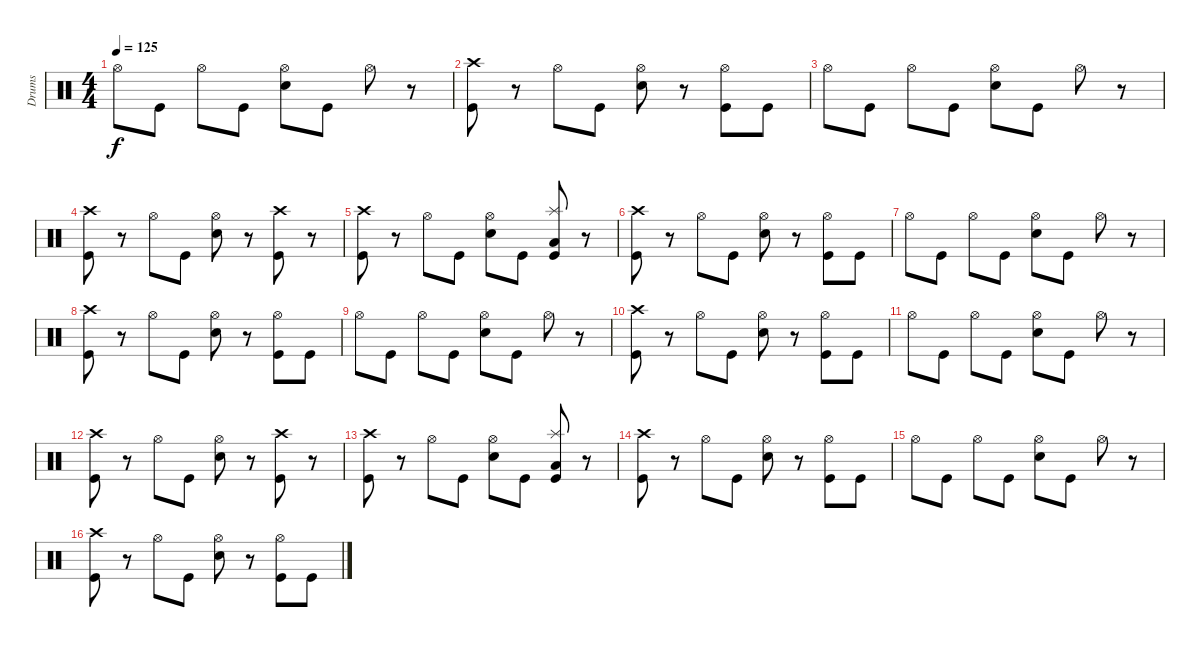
\track ("Drums" "Drums") {instrument percussion}
\staff {score}
\articulation defaults
\ts (4 4)
\tempo 125
\clef neutral
\ks c "Hi-Hat (open)".8{dy f} "Kick (hit)".8 "Hi-Hat (open)".8 "Kick (hit)".8
("Hi-Hat (open)" "Snare (hit) 2").8 "Kick (hit)".8 "Hi-Hat (open)".8 r.8 |
("Crash high (hit)" "Kick (hit)").8 r.8 "Hi-Hat (open)".8 "Kick (hit)".8 ("Hi-Hat (open)" "Snare (hit) 2").8 r.8 ("Hi-Hat (open)" "Kick (hit)").8 "Kick (hit)".8 |
"Hi-Hat (open)".8 "Kick (hit)".8 "Hi-Hat (open)".8 "Kick (hit)".8 ("Hi-Hat (open)" "Snare (hit) 2").8 "Kick (hit)".8 "Hi-Hat (open)".8 r.8 |
("Crash high (hit)" "Kick (hit)").8 r.8 "Hi-Hat (open)".8 "Kick (hit)".8 ("Hi-Hat (open)" "Snare (hit) 2").8 r.8 ("Crash high (hit)" "Kick (hit)").8 r.8 |
("Crash high (hit)" "Kick (hit)").8 r.8 "Hi-Hat (open)".8 "Kick (hit)".8 ("Hi-Hat (open)" "Snare (hit) 2").8 "Kick (hit)".8 ("Splash (hit)" "Low Floor Tom (hit)" "Kick (hit)").8 r.8 |
("Crash high (hit)" "Kick (hit)").8 r.8 "Hi-Hat (open)".8 "Kick (hit)".8 ("Hi-Hat (open)" "Snare (hit) 2").8 r.8 ("Hi-Hat (open)" "Kick (hit)").8 "Kick (hit)".8 |
"Hi-Hat (open)".8 "Kick (hit)".8 "Hi-Hat (open)".8 "Kick (hit)".8 ("Hi-Hat (open)" "Snare (hit) 2").8 "Kick (hit)".8 "Hi-Hat (open)".8 r.8 |
("Crash high (hit)" "Kick (hit)").8 r.8 "Hi-Hat (open)".8 "Kick (hit)".8 ("Hi-Hat (open)" "Snare (hit) 2").8 r.8 ("Hi-Hat (open)" "Kick (hit)").8 "Kick (hit)".8 |
"Hi-Hat (open)".8 "Kick (hit)".8 "Hi-Hat (open)".8 "Kick (hit)".8 ("Hi-Hat (open)" "Snare (hit) 2").8 "Kick (hit)".8 "Hi-Hat (open)".8 r.8 |
("Crash high (hit)" "Kick (hit)").8 r.8 "Hi-Hat (open)".8 "Kick (hit)".8 ("Hi-Hat (open)" "Snare (hit) 2").8 r.8 ("Hi-Hat (open)" "Kick (hit)").8 "Kick (hit)".8 |
"Hi-Hat (open)".8 "Kick (hit)".8 "Hi-Hat (open)".8 "Kick (hit)".8 ("Hi-Hat (open)" "Snare (hit) 2").8 "Kick (hit)".8 "Hi-Hat (open)".8 r.8 |
("Crash high (hit)" "Kick (hit)").8 r.8 "Hi-Hat (open)".8 "Kick (hit)".8 ("Hi-Hat (open)" "Snare (hit) 2").8 r.8 ("Crash high (hit)" "Kick (hit)").8 r.8 |
("Crash high (hit)" "Kick (hit)").8 r.8 "Hi-Hat (open)".8 "Kick (hit)".8 ("Hi-Hat (open)" "Snare (hit) 2").8 "Kick (hit)".8 ("Splash (hit)" "Low Floor Tom (hit)" "Kick (hit)").8 r.8 |
("Crash high (hit)" "Kick (hit)").8 r.8 "Hi-Hat (open)".8 "Kick (hit)".8 ("Hi-Hat (open)" "Snare (hit) 2").8 r.8 ("Hi-Hat (open)" "Kick (hit)").8 "Kick (hit)".8 |
"Hi-Hat (open)".8 "Kick (hit)".8 "Hi-Hat (open)".8 "Kick (hit)".8 ("Hi-Hat (open)" "Snare (hit) 2").8 "Kick (hit)".8 "Hi-Hat (open)".8 r.8 |
("Crash high (hit)" "Kick (hit)").8 r.8 "Hi-Hat (open)".8 "Kick (hit)".8 ("Hi-Hat (open)" "Snare (hit) 2").8 r.8 ("Hi-Hat (open)" "Kick (hit)").8 "Kick (hit)".8
